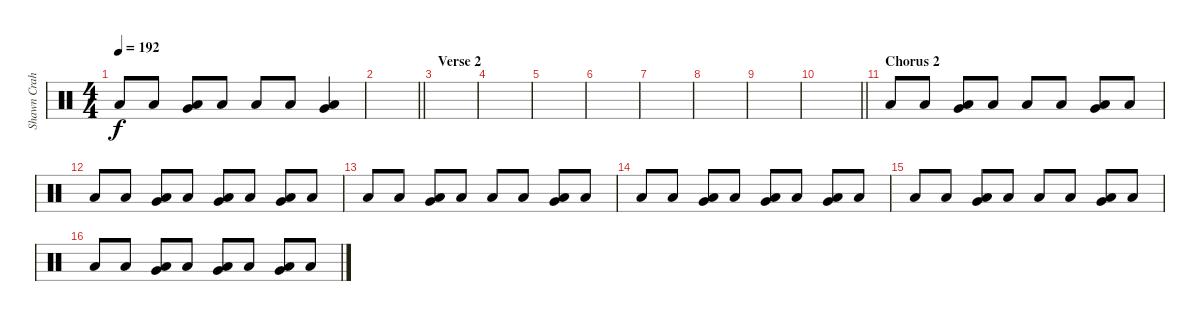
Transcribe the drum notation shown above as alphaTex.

\track ("Shawn Crahan" "Shawn Crah") {instrument percussion}
\staff {score}
\articulation defaults
\ts (4 4)
\tempo 192
\clef neutral
\ks c "Low Floor Tom (hit)".8{dy f} "Low Floor Tom (hit)".8
("Very Low Tom (hit)" "Low Floor Tom (hit)").8 "Low Floor Tom (hit)".8 "Low Floor Tom (hit)".8 "Low Floor Tom (hit)".8 ("Very Low Tom (hit)" "Low Floor Tom (hit)").4 |
\barLineRight lightlight
|
\section ("" "Verse 2")
|
|
|
|
|
|
|
\barLineRight lightlight
|
\section ("" "Chorus 2")
"Low Floor Tom (hit)".8 "Low Floor Tom (hit)".8 ("Very Low Tom (hit)" "Low Floor Tom (hit)").8 "Low Floor Tom (hit)".8 "Low Floor Tom (hit)".8 "Low Floor Tom (hit)".8 ("Very Low Tom (hit)" "Low Floor Tom (hit)").8 "Low Floor Tom (hit)".8 |
"Low Floor Tom (hit)".8 "Low Floor Tom (hit)".8 ("Very Low Tom (hit)" "Low Floor Tom (hit)").8 "Low Floor Tom (hit)".8 ("Very Low Tom (hit)" "Low Floor Tom (hit)").8 "Low Floor Tom (hit)".8 ("Very Low Tom (hit)" "Low Floor Tom (hit)").8 "Low Floor Tom (hit)".8 |
"Low Floor Tom (hit)".8 "Low Floor Tom (hit)".8 ("Very Low Tom (hit)" "Low Floor Tom (hit)").8 "Low Floor Tom (hit)".8 "Low Floor Tom (hit)".8 "Low Floor Tom (hit)".8 ("Very Low Tom (hit)" "Low Floor Tom (hit)").8 "Low Floor Tom (hit)".8 |
"Low Floor Tom (hit)".8 "Low Floor Tom (hit)".8 ("Very Low Tom (hit)" "Low Floor Tom (hit)").8 "Low Floor Tom (hit)".8 ("Very Low Tom (hit)" "Low Floor Tom (hit)").8 "Low Floor Tom (hit)".8 ("Very Low Tom (hit)" "Low Floor Tom (hit)").8 "Low Floor Tom (hit)".8 |
"Low Floor Tom (hit)".8 "Low Floor Tom (hit)".8 ("Very Low Tom (hit)" "Low Floor Tom (hit)").8 "Low Floor Tom (hit)".8 "Low Floor Tom (hit)".8 "Low Floor Tom (hit)".8 ("Very Low Tom (hit)" "Low Floor Tom (hit)").8 "Low Floor Tom (hit)".8 |
"Low Floor Tom (hit)".8 "Low Floor Tom (hit)".8 ("Very Low Tom (hit)" "Low Floor Tom (hit)").8 "Low Floor Tom (hit)".8 ("Very Low Tom (hit)" "Low Floor Tom (hit)").8 "Low Floor Tom (hit)".8 ("Very Low Tom (hit)" "Low Floor Tom (hit)").8 "Low Floor Tom (hit)".8
